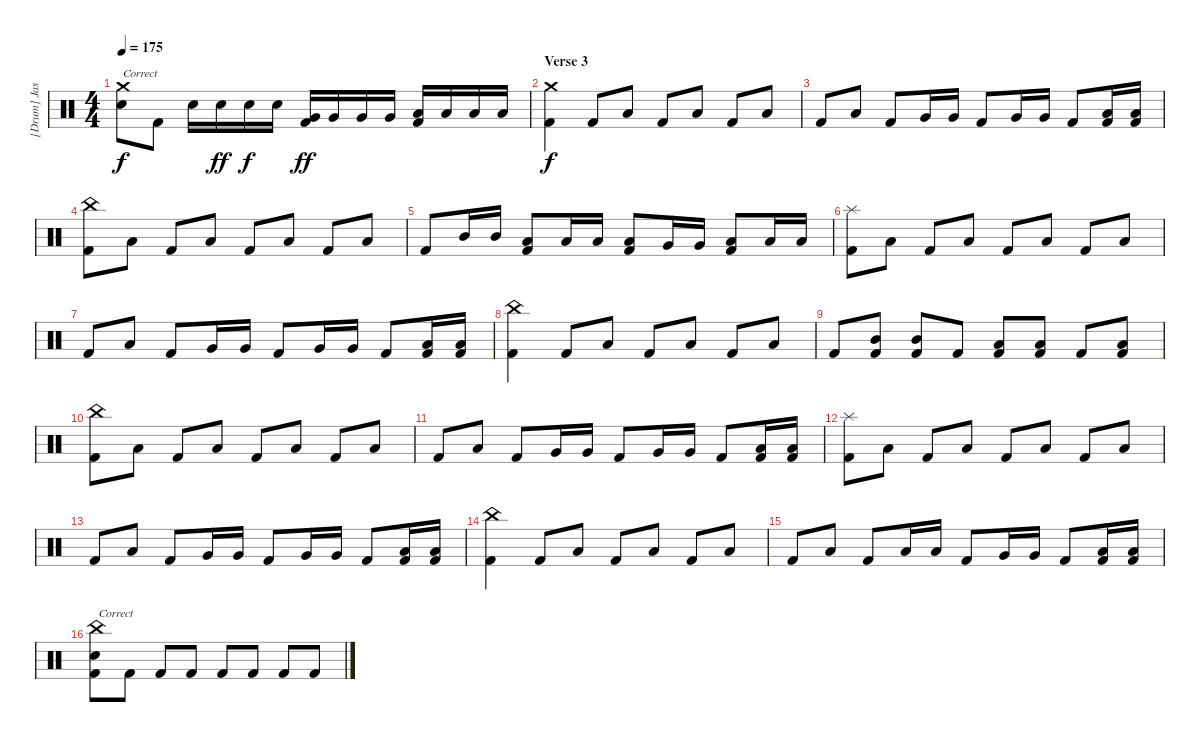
\track ("[Drum] Jason \"Shakes\" West" "[Drum] Jas") {instrument percussion}
\staff {score}
\articulation defaults
\ts (4 4)
\tempo 175
\clef neutral
\ks c
("Crash medium (hit)" "Electric Snare (hit)").8{txt "Correct" dy f} "Kick (hit) 2".8 "Electric Snare (hit)".16 "Electric Snare (hit)".16{dy ff} "Electric Snare (hit)".16{dy f} "Electric Snare (hit)".16 ("Very Low Tom (hit)" "Kick (hit) 2").16{dy ff} "Very Low Tom (hit)".16 "Very Low Tom (hit)".16 "Very Low Tom (hit)".16 ("Low Floor Tom (hit)" "Kick (hit) 2").16 "Low Floor Tom (hit)".16 "Low Floor Tom (hit)".16 "Low Floor Tom (hit)".16 |
\section ("" "Verse 3")
("Crash medium (hit)" "Kick (hit) 2").4{dy f} "Kick (hit) 2".8 "Low Floor Tom (hit)".8 "Kick (hit) 2".8 "Low Floor Tom (hit)".8 "Kick (hit) 2".8 "Low Floor Tom (hit)".8 |
"Kick (hit) 2".8 "Low Floor Tom (hit)".8 "Kick (hit) 2".8 "Very Low Tom (hit)".16 "Very Low Tom (hit)".16 "Kick (hit) 2".8 "Very Low Tom (hit)".16 "Very Low Tom (hit)".16 "Kick (hit) 2".8 ("Low Floor Tom (hit)" "Kick (hit) 2").16 ("Low Floor Tom (hit)" "Kick (hit) 2").16 |
("China (hit)" "Kick (hit) 2").8 "Low Floor Tom (hit)".8 "Kick (hit) 2".8 "Low Floor Tom (hit)".8 "Kick (hit) 2".8 "Low Floor Tom (hit)".8 "Kick (hit) 2".8 "Low Floor Tom (hit)".8 |
"Kick (hit) 2".8 "Mid Tom (hit)".16 "Mid Tom (hit)".16 ("Low Floor Tom (hit)" "Kick (hit) 2").8 "Low Tom (hit)".16 "Low Tom (hit)".16 ("Low Floor Tom (hit)" "Kick (hit) 2").8 "Very Low Tom (hit)".16 "Very Low Tom (hit)".16 ("Low Floor Tom (hit)" "Kick (hit) 2").8 "Low Floor Tom (hit)".16 "Low Floor Tom (hit)".16 |
("Splash (hit)" "Kick (hit) 2").8 "Low Floor Tom (hit)".8 "Kick (hit) 2".8 "Low Floor Tom (hit)".8 "Kick (hit) 2".8 "Low Floor Tom (hit)".8 "Kick (hit) 2".8 "Low Floor Tom (hit)".8 |
"Kick (hit) 2".8 "Low Floor Tom (hit)".8 "Kick (hit) 2".8 "Very Low Tom (hit)".16 "Very Low Tom (hit)".16 "Kick (hit) 2".8 "Very Low Tom (hit)".16 "Very Low Tom (hit)".16 "Kick (hit) 2".8 ("Low Floor Tom (hit)" "Kick (hit) 2").16 ("Low Floor Tom (hit)" "Kick (hit) 2").16 |
("China (hit)" "Kick (hit) 2").4 "Kick (hit) 2".8 "Low Floor Tom (hit)".8 "Kick (hit) 2".8 "Low Floor Tom (hit)".8 "Kick (hit) 2".8 "Low Floor Tom (hit)".8 |
"Kick (hit) 2".8 ("Mid Tom (hit)" "Kick (hit) 2").8 ("Mid Tom (hit)" "Kick (hit) 2").8 "Kick (hit) 2".8 ("Low Tom (hit)" "Kick (hit) 2").8 ("Low Tom (hit)" "Kick (hit) 2").8 "Kick (hit) 2".8 ("Low Floor Tom (hit)" "Kick (hit) 2").8 |
("China (hit)" "Kick (hit) 2").8 "Low Floor Tom (hit)".8 "Kick (hit) 2".8 "Low Floor Tom (hit)".8 "Kick (hit) 2".8 "Low Floor Tom (hit)".8 "Kick (hit) 2".8 "Low Floor Tom (hit)".8 |
"Kick (hit) 2".8 "Low Floor Tom (hit)".8 "Kick (hit) 2".8 "Very Low Tom (hit)".16 "Very Low Tom (hit)".16 "Kick (hit) 2".8 "Very Low Tom (hit)".16 "Very Low Tom (hit)".16 "Kick (hit) 2".8 ("Low Floor Tom (hit)" "Kick (hit) 2").16 ("Low Floor Tom (hit)" "Kick (hit) 2").16 |
("Splash (hit)" "Kick (hit) 2").8 "Low Floor Tom (hit)".8 "Kick (hit) 2".8 "Low Floor Tom (hit)".8 "Kick (hit) 2".8 "Low Floor Tom (hit)".8 "Kick (hit) 2".8 "Low Floor Tom (hit)".8 |
"Kick (hit) 2".8 "Low Floor Tom (hit)".8 "Kick (hit) 2".8 "Very Low Tom (hit)".16 "Very Low Tom (hit)".16 "Kick (hit) 2".8 "Very Low Tom (hit)".16 "Very Low Tom (hit)".16 "Kick (hit) 2".8 ("Low Floor Tom (hit)" "Kick (hit) 2").16 ("Low Floor Tom (hit)" "Kick (hit) 2").16 |
("China (hit)" "Kick (hit) 2").4 "Kick (hit) 2".8 "Low Floor Tom (hit)".8 "Kick (hit) 2".8 "Low Floor Tom (hit)".8 "Kick (hit) 2".8 "Low Floor Tom (hit)".8 |
"Kick (hit) 2".8 "Low Floor Tom (hit)".8 "Kick (hit) 2".8 "Low Tom (hit)".16 "Low Tom (hit)".16 "Kick (hit) 2".8 "Very Low Tom (hit)".16 "Very Low Tom (hit)".16 "Kick (hit) 2".8 ("Low Floor Tom (hit)" "Kick (hit) 2").16 ("Low Floor Tom (hit)" "Kick (hit) 2").16 |
("Electric Snare (hit)" "China (hit)" "Kick (hit) 2").8{txt "Correct"} "Kick (hit) 2".8 "Kick (hit) 2".8 "Kick (hit) 2".8 "Kick (hit) 2".8 "Kick (hit) 2".8 "Kick (hit) 2".8 "Kick (hit) 2".8
